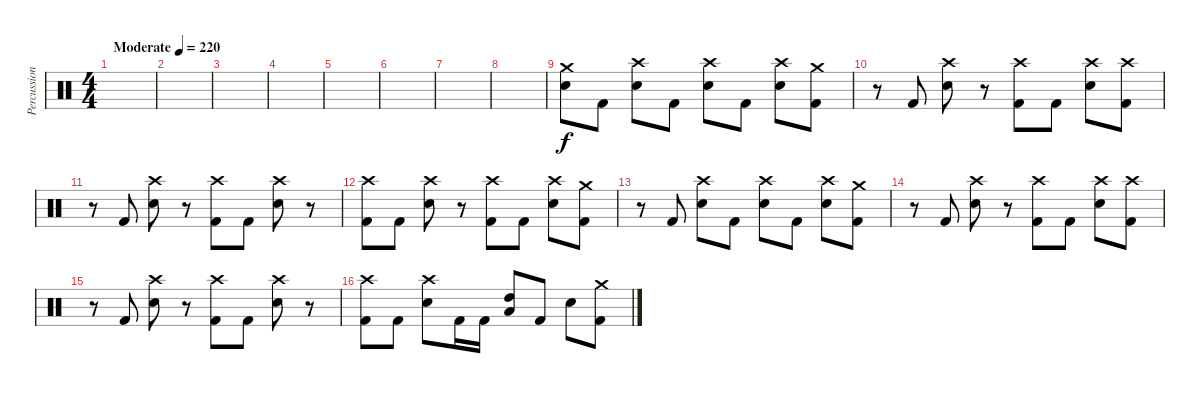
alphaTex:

\track ("Percussion" "Percussion") {instrument percussion}
\staff {score}
\articulation defaults
\ts (4 4)
\tempo (220 "Moderate")
\clef neutral
\ks c
|
|
|
|
|
|
|
|
("Crash medium (hit)" "Electric Snare (hit)").8 "Kick (hit) 2".8 ("Crash high (hit)" "Electric Snare (hit)").8 "Kick (hit) 2".8 ("Crash high (hit)" "Electric Snare (hit)").8 "Kick (hit) 2".8 ("Crash high (hit)" "Electric Snare (hit)").8 ("Crash medium (hit)" "Kick (hit) 2").8 |
r.8 "Kick (hit) 2".8 ("Crash high (hit)" "Electric Snare (hit)").8 r.8 ("Crash high (hit)" "Kick (hit) 2").8 "Kick (hit) 2".8 ("Crash high (hit)" "Electric Snare (hit)").8 ("Crash high (hit)" "Kick (hit) 2").8 |
r.8 "Kick (hit) 2".8 ("Crash high (hit)" "Electric Snare (hit)").8 r.8 ("Crash high (hit)" "Kick (hit) 2").8 "Kick (hit) 2".8 ("Crash high (hit)" "Electric Snare (hit)").8 r.8 |
("Crash high (hit)" "Kick (hit) 2").8 "Kick (hit) 2".8 ("Crash high (hit)" "Electric Snare (hit)").8 r.8 ("Crash high (hit)" "Kick (hit) 2").8 "Kick (hit) 2".8 ("Crash high (hit)" "Electric Snare (hit)").8 ("Crash medium (hit)" "Kick (hit) 2").8 |
r.8 "Kick (hit) 2".8 ("Crash high (hit)" "Electric Snare (hit)").8 "Kick (hit) 2".8 ("Crash high (hit)" "Electric Snare (hit)").8 "Kick (hit) 2".8 ("Crash high (hit)" "Electric Snare (hit)").8 ("Crash medium (hit)" "Kick (hit) 2").8 |
r.8 "Kick (hit) 2".8 ("Crash high (hit)" "Electric Snare (hit)").8 r.8 ("Crash high (hit)" "Kick (hit) 2").8 "Kick (hit) 2".8 ("Crash high (hit)" "Electric Snare (hit)").8 ("Crash high (hit)" "Kick (hit) 2").8 |
r.8 "Kick (hit) 2".8 ("Crash high (hit)" "Electric Snare (hit)").8 r.8 ("Crash high (hit)" "Kick (hit) 2").8 "Kick (hit) 2".8 ("Crash high (hit)" "Electric Snare (hit)").8 r.8 |
("Crash high (hit)" "Kick (hit) 2").8 "Kick (hit) 2".8 ("Crash high (hit)" "Electric Snare (hit)").8 "Kick (hit) 2".16 "Kick (hit) 2".16 ("High Tom (hit)" "Low Floor Tom (hit)").8 "Kick (hit) 2".8 "Electric Snare (hit)".8 ("Crash medium (hit)" "Kick (hit) 2").8
